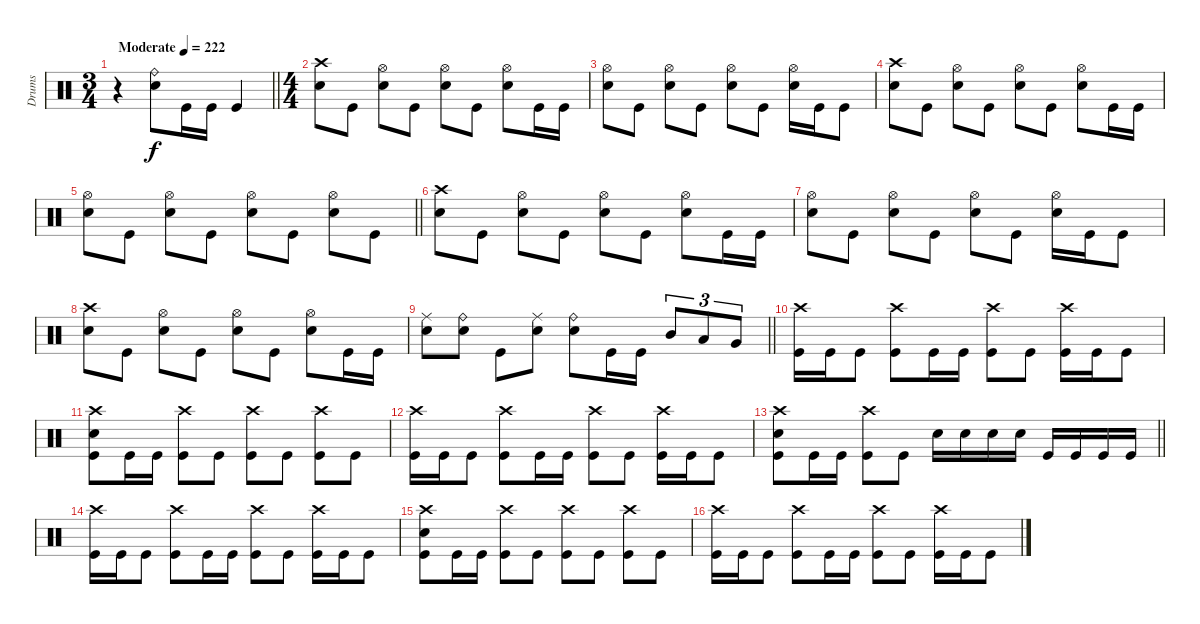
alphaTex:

\track ("Drums" "Drums") {instrument percussion}
\staff
\articulation defaults
\ts (3 4)
\tempo (222 "Moderate")
\clef neutral
\barLineRight lightlight
\ks c
r.4{dy f} ("Ride (bell)" "Electric Snare (hit)").8 "Kick (hit)".16 "Kick (hit)".16 "Kick (hit)".4 |
\ts (4 4)
("Crash high (hit)" "Electric Snare (hit)").8 "Kick (hit)".8 ("Hi-Hat (open)" "Electric Snare (hit)").8 "Kick (hit)".8 ("Hi-Hat (open)" "Electric Snare (hit)").8 "Kick (hit)".8 ("Hi-Hat (open)" "Electric Snare (hit)").8 "Kick (hit)".16 "Kick (hit)".16 |
("Hi-Hat (open)" "Electric Snare (hit)").8 "Kick (hit)".8 ("Hi-Hat (open)" "Electric Snare (hit)").8 "Kick (hit)".8 ("Hi-Hat (open)" "Electric Snare (hit)").8 "Kick (hit)".8 ("Hi-Hat (open)" "Electric Snare (hit)").16 "Kick (hit)".16 "Kick (hit)".8 |
("Crash high (hit)" "Electric Snare (hit)").8 "Kick (hit)".8 ("Hi-Hat (open)" "Electric Snare (hit)").8 "Kick (hit)".8 ("Hi-Hat (open)" "Electric Snare (hit)").8 "Kick (hit)".8 ("Hi-Hat (open)" "Electric Snare (hit)").8 "Kick (hit)".16 "Kick (hit)".16 |
\barLineRight lightlight
("Hi-Hat (open)" "Electric Snare (hit)").8 "Kick (hit)".8 ("Hi-Hat (open)" "Electric Snare (hit)").8 "Kick (hit)".8 ("Hi-Hat (open)" "Electric Snare (hit)").8 "Kick (hit)".8 ("Hi-Hat (open)" "Electric Snare (hit)").8 "Kick (hit)".8 |
("Crash high (hit)" "Electric Snare (hit)").8 "Kick (hit)".8 ("Hi-Hat (open)" "Electric Snare (hit)").8 "Kick (hit)".8 ("Hi-Hat (open)" "Electric Snare (hit)").8 "Kick (hit)".8 ("Hi-Hat (open)" "Electric Snare (hit)").8 "Kick (hit)".16 "Kick (hit)".16 |
("Hi-Hat (open)" "Electric Snare (hit)").8 "Kick (hit)".8 ("Hi-Hat (open)" "Electric Snare (hit)").8 "Kick (hit)".8 ("Hi-Hat (open)" "Electric Snare (hit)").8 "Kick (hit)".8 ("Hi-Hat (open)" "Electric Snare (hit)").16 "Kick (hit)".16 "Kick (hit)".8 |
("Crash high (hit)" "Electric Snare (hit)").8 "Kick (hit)".8 ("Hi-Hat (open)" "Electric Snare (hit)").8 "Kick (hit)".8 ("Hi-Hat (open)" "Electric Snare (hit)").8 "Kick (hit)".8 ("Hi-Hat (open)" "Electric Snare (hit)").8 "Kick (hit)".16 "Kick (hit)".16 |
\barLineRight lightlight
("Ride (middle)" "Electric Snare (hit)").8 ("Ride (bell)" "Electric Snare (hit)").8 "Kick (hit)".8 ("Ride (middle)" "Electric Snare (hit)").8 ("Ride (bell)" "Electric Snare (hit)").8 "Kick (hit)".16 "Kick (hit)".16 "Mid Tom (hit)".8{tu (3 2)} "Low Tom (hit)".8{tu (3 2)} "Very Low Tom (hit)".8{tu (3 2)} |
("Crash high (hit)" "Kick (hit)").16 "Kick (hit)".16 "Kick (hit)".8 ("Crash high (hit)" "Kick (hit)").8 "Kick (hit)".16 "Kick (hit)".16 ("Crash high (hit)" "Kick (hit)").8 "Kick (hit)".8 ("Crash high (hit)" "Kick (hit)").16 "Kick (hit)".16 "Kick (hit)".8 |
("Crash high (hit)" "Electric Snare (hit)" "Kick (hit)").8 "Kick (hit)".16 "Kick (hit)".16 ("Crash high (hit)" "Kick (hit)").8 "Kick (hit)".8 ("Crash high (hit)" "Kick (hit)").8 "Kick (hit)".8 ("Crash high (hit)" "Kick (hit)").8 "Kick (hit)".8 |
("Crash high (hit)" "Kick (hit)").16 "Kick (hit)".16 "Kick (hit)".8 ("Crash high (hit)" "Kick (hit)").8 "Kick (hit)".16 "Kick (hit)".16 ("Crash high (hit)" "Kick (hit)").8 "Kick (hit)".8 ("Crash high (hit)" "Kick (hit)").16 "Kick (hit)".16 "Kick (hit)".8 |
\barLineRight lightlight
("Crash high (hit)" "Electric Snare (hit)" "Kick (hit)").8 "Kick (hit)".16 "Kick (hit)".16 ("Crash high (hit)" "Kick (hit)").8 "Kick (hit)".8 "Electric Snare (hit)".16 "Electric Snare (hit)".16 "Electric Snare (hit)".16 "Electric Snare (hit)".16 "Kick (hit)".16 "Kick (hit)".16 "Kick (hit)".16 "Kick (hit)".16 |
("Crash high (hit)" "Kick (hit)").16 "Kick (hit)".16 "Kick (hit)".8 ("Crash high (hit)" "Kick (hit)").8 "Kick (hit)".16 "Kick (hit)".16 ("Crash high (hit)" "Kick (hit)").8 "Kick (hit)".8 ("Crash high (hit)" "Kick (hit)").16 "Kick (hit)".16 "Kick (hit)".8 |
("Crash high (hit)" "Electric Snare (hit)" "Kick (hit)").8 "Kick (hit)".16 "Kick (hit)".16 ("Crash high (hit)" "Kick (hit)").8 "Kick (hit)".8 ("Crash high (hit)" "Kick (hit)").8 "Kick (hit)".8 ("Crash high (hit)" "Kick (hit)").8 "Kick (hit)".8 |
("Crash high (hit)" "Kick (hit)").16 "Kick (hit)".16 "Kick (hit)".8 ("Crash high (hit)" "Kick (hit)").8 "Kick (hit)".16 "Kick (hit)".16 ("Crash high (hit)" "Kick (hit)").8 "Kick (hit)".8 ("Crash high (hit)" "Kick (hit)").16 "Kick (hit)".16 "Kick (hit)".8
